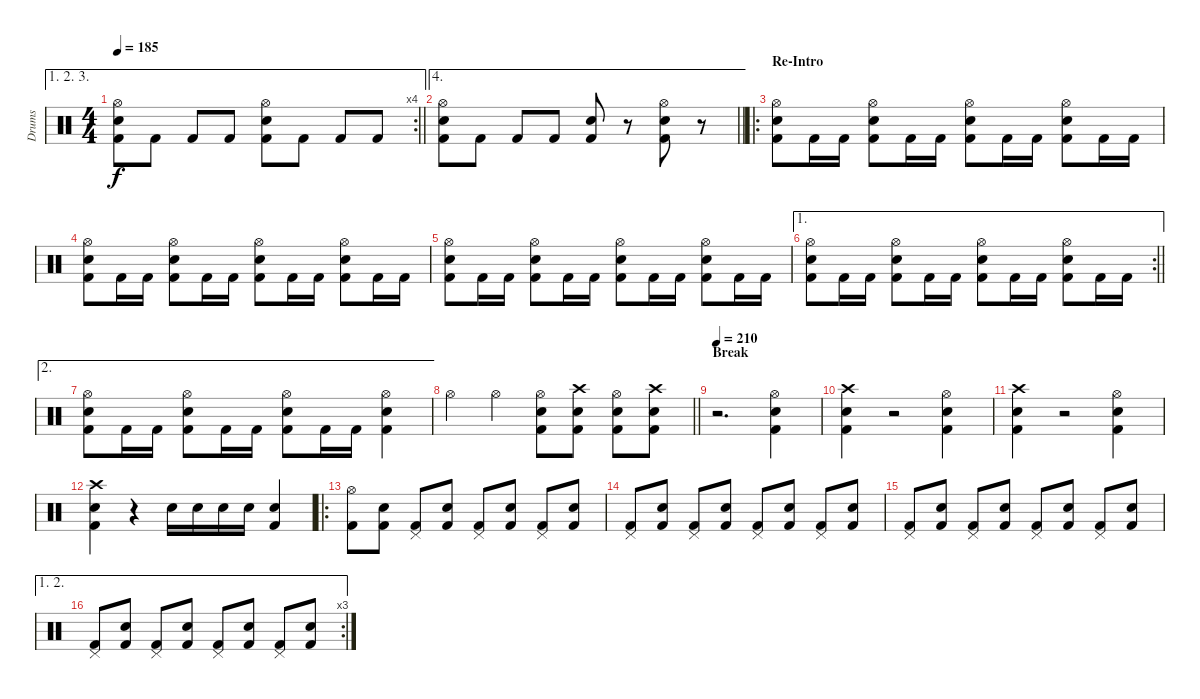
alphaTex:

\track ("Drums" "Drums") {instrument percussion}
\staff {score}
\articulation defaults
\ae (1 2 3)
\rc 4
\ts (4 4)
\tempo 185
\clef neutral
\barLineRight lightlight
\ks c
("Hi-Hat (open)" "Snare (hit) 2" "Kick (hit) 2").8{dy f} "Kick (hit) 2".8 "Kick (hit) 2".8 "Kick (hit) 2".8 ("Hi-Hat (open)" "Snare (hit) 2" "Kick (hit) 2").8 "Kick (hit) 2".8 "Kick (hit) 2".8 "Kick (hit) 2".8 |
\ae 4
\barLineRight lightlight
("Hi-Hat (open)" "Snare (hit) 2" "Kick (hit) 2").8 "Kick (hit) 2".8 "Kick (hit) 2".8 "Kick (hit) 2".8 ("Snare (hit) 2" "Kick (hit) 2").8 r.8 ("Hi-Hat (open)" "Snare (hit) 2" "Kick (hit) 2").8 r.8 |
\ro
\section ("" "Re-Intro")
("Hi-Hat (open)" "Snare (hit) 2" "Kick (hit) 2").8 "Kick (hit) 2".16 "Kick (hit) 2".16 ("Hi-Hat (open)" "Snare (hit) 2" "Kick (hit) 2").8 "Kick (hit) 2".16 "Kick (hit) 2".16 ("Hi-Hat (open)" "Snare (hit) 2" "Kick (hit) 2").8 "Kick (hit) 2".16 "Kick (hit) 2".16 ("Hi-Hat (open)" "Snare (hit) 2" "Kick (hit) 2").8 "Kick (hit) 2".16 "Kick (hit) 2".16 |
("Hi-Hat (open)" "Snare (hit) 2" "Kick (hit) 2").8 "Kick (hit) 2".16 "Kick (hit) 2".16 ("Hi-Hat (open)" "Snare (hit) 2" "Kick (hit) 2").8 "Kick (hit) 2".16 "Kick (hit) 2".16 ("Hi-Hat (open)" "Snare (hit) 2" "Kick (hit) 2").8 "Kick (hit) 2".16 "Kick (hit) 2".16 ("Hi-Hat (open)" "Snare (hit) 2" "Kick (hit) 2").8 "Kick (hit) 2".16 "Kick (hit) 2".16 |
("Hi-Hat (open)" "Snare (hit) 2" "Kick (hit) 2").8 "Kick (hit) 2".16 "Kick (hit) 2".16 ("Hi-Hat (open)" "Snare (hit) 2" "Kick (hit) 2").8 "Kick (hit) 2".16 "Kick (hit) 2".16 ("Hi-Hat (open)" "Snare (hit) 2" "Kick (hit) 2").8 "Kick (hit) 2".16 "Kick (hit) 2".16 ("Hi-Hat (open)" "Snare (hit) 2" "Kick (hit) 2").8 "Kick (hit) 2".16 "Kick (hit) 2".16 |
\ae 1
\rc 2
\barLineRight lightlight
("Hi-Hat (open)" "Snare (hit) 2" "Kick (hit) 2").8 "Kick (hit) 2".16 "Kick (hit) 2".16 ("Hi-Hat (open)" "Snare (hit) 2" "Kick (hit) 2").8 "Kick (hit) 2".16 "Kick (hit) 2".16 ("Hi-Hat (open)" "Snare (hit) 2" "Kick (hit) 2").8 "Kick (hit) 2".16 "Kick (hit) 2".16 ("Hi-Hat (open)" "Snare (hit) 2" "Kick (hit) 2").8 "Kick (hit) 2".16 "Kick (hit) 2".16 |
\ae 2
("Hi-Hat (open)" "Snare (hit) 2" "Kick (hit) 2").8 "Kick (hit) 2".16 "Kick (hit) 2".16 ("Hi-Hat (open)" "Snare (hit) 2" "Kick (hit) 2").8 "Kick (hit) 2".16 "Kick (hit) 2".16 ("Hi-Hat (open)" "Snare (hit) 2" "Kick (hit) 2").8 "Kick (hit) 2".16 "Kick (hit) 2".16 ("Hi-Hat (open)" "Snare (hit) 2" "Kick (hit) 2").4 |
\barLineRight lightlight "Hi-Hat (open)".4 "Hi-Hat (open)".4
("Hi-Hat (open)" "Snare (hit) 2" "Kick (hit) 2").8 ("Crash high (hit)" "Snare (hit) 2" "Kick (hit) 2").8 ("Hi-Hat (open)" "Snare (hit) 2" "Kick (hit) 2").8 ("Crash high (hit)" "Snare (hit) 2" "Kick (hit) 2").8 |
\section ("" "Break")
\tempo 210
r.2{d} ("Hi-Hat (open)" "Snare (hit) 2" "Kick (hit) 2").4 |
("Crash high (hit)" "Snare (hit) 2" "Kick (hit) 2").4 r.2 ("Hi-Hat (open)" "Snare (hit) 2" "Kick (hit) 2").4 |
("Crash high (hit)" "Snare (hit) 2" "Kick (hit) 2").4 r.2 ("Hi-Hat (open)" "Snare (hit) 2" "Kick (hit) 2").4 |
("Crash high (hit)" "Snare (hit) 2" "Kick (hit) 2").4 r.4 "Snare (hit) 2".16 "Snare (hit) 2".16 "Snare (hit) 2".16 "Snare (hit) 2".16 ("Snare (hit) 2" "Kick (hit) 2").4 |
\ro
("Hi-Hat (open)" "Kick (hit) 2").8 ("Snare (hit) 2" "Kick (hit) 2").8 ("Pedal Hi-Hat (hit)" "Kick (hit) 2").8 ("Snare (hit) 2" "Kick (hit) 2").8 ("Pedal Hi-Hat (hit)" "Kick (hit) 2").8 ("Snare (hit) 2" "Kick (hit) 2").8 ("Pedal Hi-Hat (hit)" "Kick (hit) 2").8 ("Snare (hit) 2" "Kick (hit) 2").8 |
("Pedal Hi-Hat (hit)" "Kick (hit) 2").8 ("Snare (hit) 2" "Kick (hit) 2").8 ("Pedal Hi-Hat (hit)" "Kick (hit) 2").8 ("Snare (hit) 2" "Kick (hit) 2").8 ("Pedal Hi-Hat (hit)" "Kick (hit) 2").8 ("Snare (hit) 2" "Kick (hit) 2").8 ("Pedal Hi-Hat (hit)" "Kick (hit) 2").8 ("Snare (hit) 2" "Kick (hit) 2").8 |
("Pedal Hi-Hat (hit)" "Kick (hit) 2").8 ("Snare (hit) 2" "Kick (hit) 2").8 ("Pedal Hi-Hat (hit)" "Kick (hit) 2").8 ("Snare (hit) 2" "Kick (hit) 2").8 ("Pedal Hi-Hat (hit)" "Kick (hit) 2").8 ("Snare (hit) 2" "Kick (hit) 2").8 ("Pedal Hi-Hat (hit)" "Kick (hit) 2").8 ("Snare (hit) 2" "Kick (hit) 2").8 |
\ae (1 2)
\rc 3
("Pedal Hi-Hat (hit)" "Kick (hit) 2").8 ("Snare (hit) 2" "Kick (hit) 2").8 ("Pedal Hi-Hat (hit)" "Kick (hit) 2").8 ("Snare (hit) 2" "Kick (hit) 2").8 ("Pedal Hi-Hat (hit)" "Kick (hit) 2").8 ("Snare (hit) 2" "Kick (hit) 2").8 ("Pedal Hi-Hat (hit)" "Kick (hit) 2").8 ("Snare (hit) 2" "Kick (hit) 2").8
